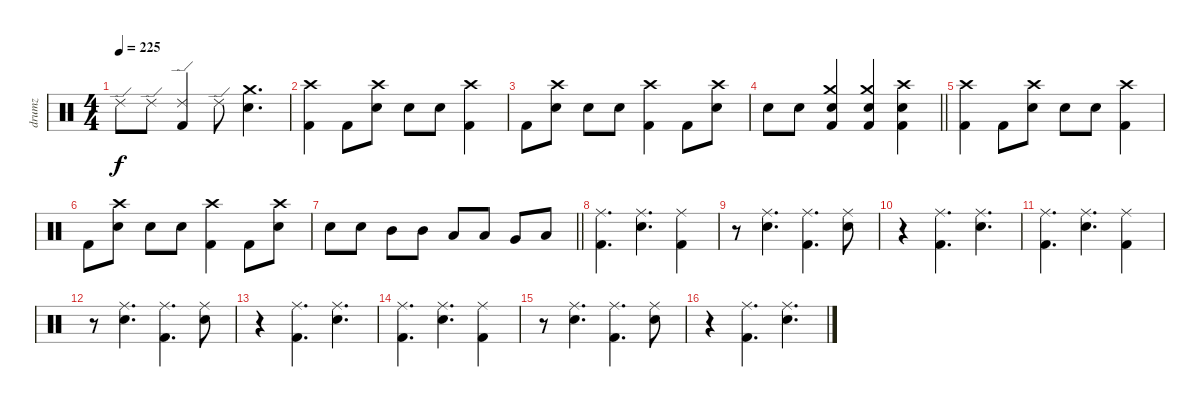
\track ("drumz" "drumz") {instrument percussion}
\staff {score}
\articulation defaults
\ts (4 4)
\tempo 225
\clef neutral
\ks c "Ride (edge) 2".8{dy f} "Ride (edge) 2".8
("Ride (edge) 2" "Kick (hit) 2").4 "Ride (edge) 2".8 ("Crash medium (hit)" "Electric Snare (hit)").4{d} |
("Crash high (hit)" "Kick (hit) 2").4 "Kick (hit) 2".8 ("Crash high (hit)" "Electric Snare (hit)").8 "Electric Snare (hit)".8 "Electric Snare (hit)".8 ("Crash high (hit)" "Kick (hit) 2").4 |
"Kick (hit) 2".8 ("Crash high (hit)" "Electric Snare (hit)").8 "Electric Snare (hit)".8 "Electric Snare (hit)".8 ("Crash high (hit)" "Kick (hit) 2").4 "Kick (hit) 2".8 ("Crash high (hit)" "Electric Snare (hit)").8 |
\barLineRight lightlight "Electric Snare (hit)".8 "Electric Snare (hit)".8
("Crash medium (hit)" "Electric Snare (hit)" "Kick (hit) 2").4 ("Crash medium (hit)" "Electric Snare (hit)" "Kick (hit) 2").4 ("Crash high (hit)" "Electric Snare (hit)" "Kick (hit) 2").4 |
("Crash high (hit)" "Kick (hit) 2").4 "Kick (hit) 2".8 ("Crash high (hit)" "Electric Snare (hit)").8 "Electric Snare (hit)".8 "Electric Snare (hit)".8 ("Crash high (hit)" "Kick (hit) 2").4 |
"Kick (hit) 2".8 ("Crash high (hit)" "Electric Snare (hit)").8 "Electric Snare (hit)".8 "Electric Snare (hit)".8 ("Crash high (hit)" "Kick (hit) 2").4 "Kick (hit) 2".8 ("Crash high (hit)" "Electric Snare (hit)").8 |
\barLineRight lightlight "Electric Snare (hit)".8 "Electric Snare (hit)".8 "Mid Tom (hit)".8 "Mid Tom (hit)".8 "Low Tom (hit)".8 "Low Tom (hit)".8 "Very Low Tom (hit)".8 "Low Floor Tom (hit)".8
|
("Ride (middle)" "Kick (hit) 2").4{d} ("Ride (middle)" "Electric Snare (hit)").4{d} ("Ride (middle)" "Kick (hit) 2").4 |
r.8 ("Ride (middle)" "Electric Snare (hit)").4{d} ("Ride (middle)" "Kick (hit) 2").4{d} ("Ride (middle)" "Electric Snare (hit)").8 |
r.4 ("Ride (middle)" "Kick (hit) 2").4{d} ("Ride (middle)" "Electric Snare (hit)").4{d} |
("Ride (middle)" "Kick (hit) 2").4{d} ("Ride (middle)" "Electric Snare (hit)").4{d} ("Ride (middle)" "Kick (hit) 2").4 |
r.8 ("Ride (middle)" "Electric Snare (hit)").4{d} ("Ride (middle)" "Kick (hit) 2").4{d} ("Ride (middle)" "Electric Snare (hit)").8 |
r.4 ("Ride (middle)" "Kick (hit) 2").4{d} ("Ride (middle)" "Electric Snare (hit)").4{d} |
("Ride (middle)" "Kick (hit) 2").4{d} ("Ride (middle)" "Electric Snare (hit)").4{d} ("Ride (middle)" "Kick (hit) 2").4 |
r.8 ("Ride (middle)" "Electric Snare (hit)").4{d} ("Ride (middle)" "Kick (hit) 2").4{d} ("Ride (middle)" "Electric Snare (hit)").8 |
r.4 ("Ride (middle)" "Kick (hit) 2").4{d} ("Ride (middle)" "Electric Snare (hit)").4{d}
